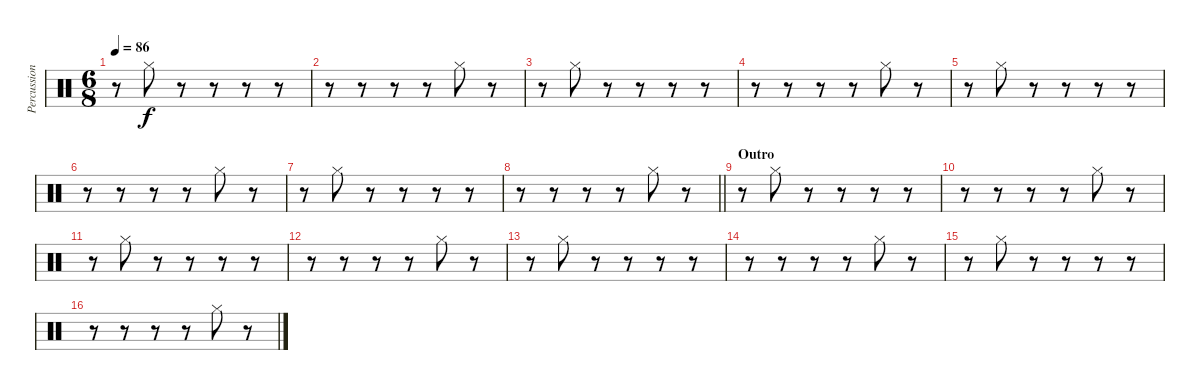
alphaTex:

\track ("Percussion" "Percussion") {instrument percussion}
\staff {score}
\articulation defaults
\ts (6 8)
\tempo 86
\clef neutral
\ks c
r.8{dy f} "Hi-Hat (closed)".8 r.8 r.8 r.8 r.8 |
r.8 r.8 r.8 r.8 "Hi-Hat (closed)".8 r.8 |
r.8 "Hi-Hat (closed)".8 r.8 r.8 r.8 r.8 |
r.8 r.8 r.8 r.8 "Hi-Hat (closed)".8 r.8 |
r.8 "Hi-Hat (closed)".8 r.8 r.8 r.8 r.8 |
r.8 r.8 r.8 r.8 "Hi-Hat (closed)".8 r.8 |
r.8 "Hi-Hat (closed)".8 r.8 r.8 r.8 r.8 |
\barLineRight lightlight
r.8 r.8 r.8 r.8 "Hi-Hat (closed)".8 r.8 |
\section ("" "Outro")
r.8 "Hi-Hat (closed)".8 r.8 r.8 r.8 r.8 |
r.8 r.8 r.8 r.8 "Hi-Hat (closed)".8 r.8 |
r.8 "Hi-Hat (closed)".8 r.8 r.8 r.8 r.8 |
r.8 r.8 r.8 r.8 "Hi-Hat (closed)".8 r.8 |
r.8 "Hi-Hat (closed)".8 r.8 r.8 r.8 r.8 |
r.8 r.8 r.8 r.8 "Hi-Hat (closed)".8 r.8 |
r.8 "Hi-Hat (closed)".8 r.8 r.8 r.8 r.8 |
r.8 r.8 r.8 r.8 "Hi-Hat (closed)".8 r.8
